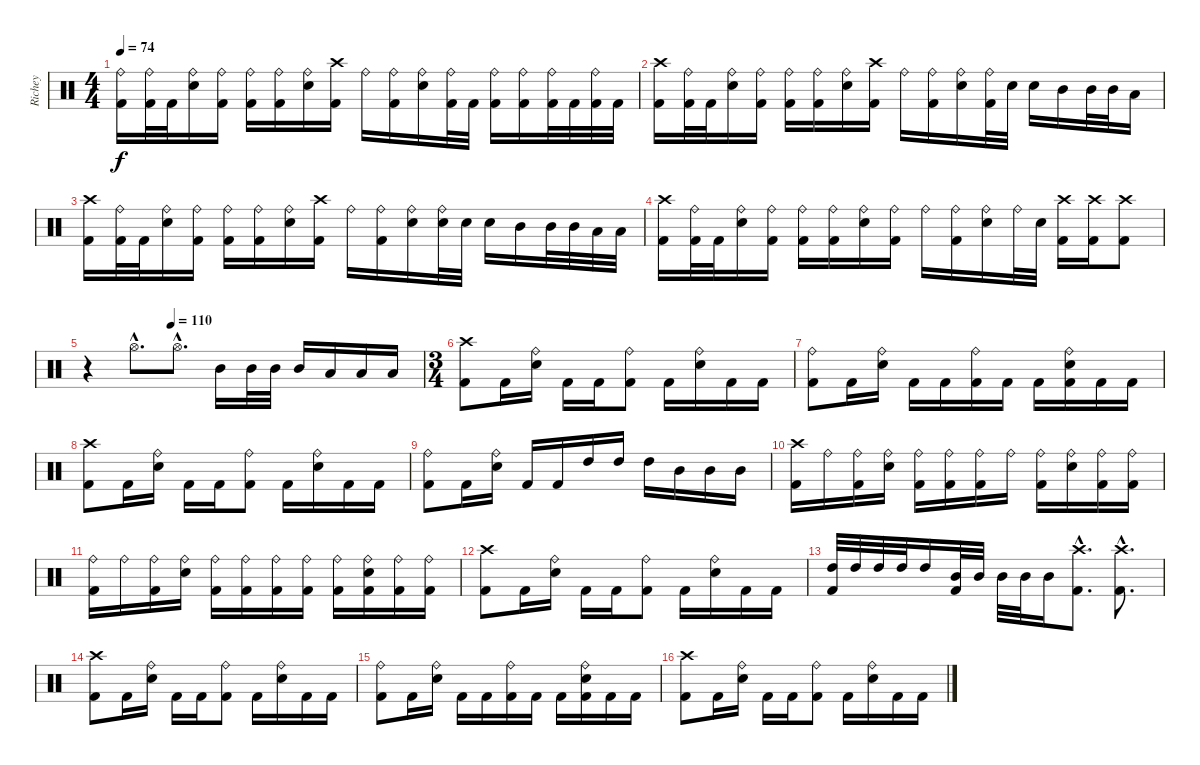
\track ("Richey" "Richey") {instrument percussion}
\staff {score}
\articulation defaults
\ts (4 4)
\tempo 74
\clef neutral
\ks c
("Ride (bell)" "Kick (hit) 2").16{dy f} ("Ride (bell)" "Kick (hit) 2").32 "Kick (hit) 2".32 ("Ride (bell)" "Snare (hit) 2").16 ("Ride (bell)" "Kick (hit) 2").16 ("Ride (bell)" "Kick (hit) 2").16 ("Ride (bell)" "Kick (hit) 2").16 ("Ride (bell)" "Snare (hit) 2").16 ("Crash high (hit)" "Kick (hit) 2").16 "Ride (bell)".16 ("Ride (bell)" "Kick (hit) 2").16 ("Ride (bell)" "Snare (hit) 2").16 ("Ride (bell)" "Kick (hit) 2").32 "Kick (hit) 2".32 ("Ride (bell)" "Kick (hit) 2").16 ("Ride (bell)" "Kick (hit) 2").16 ("Ride (bell)" "Kick (hit) 2").32 "Kick (hit) 2".32 ("Ride (bell)" "Kick (hit) 2").32 "Kick (hit) 2".32 |
("Crash high (hit)" "Kick (hit) 2").16 ("Ride (bell)" "Kick (hit) 2").32 "Kick (hit) 2".32 ("Ride (bell)" "Snare (hit) 2").16 ("Ride (bell)" "Kick (hit) 2").16 ("Ride (bell)" "Kick (hit) 2").16 ("Ride (bell)" "Kick (hit) 2").16 ("Ride (bell)" "Snare (hit) 2").16 ("Crash high (hit)" "Kick (hit) 2").16 "Ride (bell)".16 ("Ride (bell)" "Kick (hit) 2").16 ("Ride (bell)" "Snare (hit) 2").16 ("Ride (bell)" "Kick (hit) 2").32 "Snare (hit) 2".32 "Snare (hit) 2".16 "Mid Tom (hit)".16 "Mid Tom (hit)".32 "Mid Tom (hit)".32 "Low Tom (hit)".16 |
("Crash high (hit)" "Kick (hit) 2").16 ("Ride (bell)" "Kick (hit) 2").32 "Kick (hit) 2".32 ("Ride (bell)" "Snare (hit) 2").16 ("Ride (bell)" "Kick (hit) 2").16 ("Ride (bell)" "Kick (hit) 2").16 ("Ride (bell)" "Kick (hit) 2").16 ("Ride (bell)" "Snare (hit) 2").16 ("Crash high (hit)" "Kick (hit) 2").16 "Ride (bell)".16 ("Ride (bell)" "Kick (hit) 2").16 ("Ride (bell)" "Snare (hit) 2").16 ("Ride (bell)" "Snare (hit) 2").32 "Snare (hit) 2".32 "Snare (hit) 2".16 "Mid Tom (hit)".16 "Mid Tom (hit)".32 "Mid Tom (hit)".32 "Low Tom (hit)".32 "Low Tom (hit)".32 |
("Crash high (hit)" "Kick (hit) 2").16 ("Ride (bell)" "Kick (hit) 2").32 "Kick (hit) 2".32 ("Ride (bell)" "Snare (hit) 2").16 ("Ride (bell)" "Kick (hit) 2").16 ("Ride (bell)" "Kick (hit) 2").16 ("Ride (bell)" "Kick (hit) 2").16 ("Ride (bell)" "Snare (hit) 2").16 ("Ride (bell)" "Kick (hit) 2").16 "Ride (bell)".16 ("Ride (bell)" "Kick (hit) 2").16 ("Ride (bell)" "Snare (hit) 2").16 "Ride (bell)".32 "Snare (hit) 2".32 ("Crash high (hit)" "Kick (hit) 2").16 ("Crash high (hit)" "Kick (hit) 2").16 ("Crash high (hit)" "Kick (hit) 2").8 |
\tempo (110 0.25)
r.4 "Hi-Hat (open)"{hac}.8{d} "Hi-Hat (open)"{hac}.8{d} "Mid Tom (hit)".16 "Mid Tom (hit)".32 "Mid Tom (hit)".32 "Mid Tom (hit)".16 "Low Tom (hit)".16 "Low Tom (hit)".16 "Low Tom (hit)".16 |
\ts (3 4)
("Crash high (hit)" "Kick (hit) 2").8 "Kick (hit) 2".16 ("Ride (bell)" "Snare (hit) 2").16 "Kick (hit) 2".16 "Kick (hit) 2".16 ("Ride (bell)" "Kick (hit) 2").8 "Kick (hit) 2".16 ("Ride (bell)" "Snare (hit) 2").16 "Kick (hit) 2".16 "Kick (hit) 2".16 |
("Ride (bell)" "Kick (hit) 2").8 "Kick (hit) 2".16 ("Ride (bell)" "Snare (hit) 2").16 "Kick (hit) 2".16 "Kick (hit) 2".16 ("Ride (bell)" "Kick (hit) 2").16 "Kick (hit) 2".16 "Kick (hit) 2".16 ("Ride (bell)" "Snare (hit) 2" "Kick (hit) 2").16 "Kick (hit) 2".16 "Kick (hit) 2".16 |
("Crash high (hit)" "Kick (hit) 2").8 "Kick (hit) 2".16 ("Ride (bell)" "Snare (hit) 2").16 "Kick (hit) 2".16 "Kick (hit) 2".16 ("Ride (bell)" "Kick (hit) 2").8 "Kick (hit) 2".16 ("Ride (bell)" "Snare (hit) 2").16 "Kick (hit) 2".16 "Kick (hit) 2".16 |
("Ride (bell)" "Kick (hit) 2").8 "Kick (hit) 2".16 ("Ride (bell)" "Snare (hit) 2").16 "Kick (hit) 2".16 "Kick (hit) 2".16 "High Tom (hit)".16 "High Tom (hit)".16 "High Tom (hit)".16 "Mid Tom (hit)".16 "Mid Tom (hit)".16 "Mid Tom (hit)".16 |
("Crash high (hit)" "Kick (hit) 2").16 "Ride (bell)".16 ("Ride (bell)" "Kick (hit) 2").16 ("Ride (bell)" "Snare (hit) 2").16 ("Ride (bell)" "Kick (hit) 2").16 ("Ride (bell)" "Kick (hit) 2").16 ("Ride (bell)" "Kick (hit) 2").16 "Ride (bell)".16 ("Ride (bell)" "Kick (hit) 2").16 ("Ride (bell)" "Snare (hit) 2").16 ("Ride (bell)" "Kick (hit) 2").16 ("Ride (bell)" "Kick (hit) 2").16 |
("Ride (bell)" "Kick (hit) 2").16 "Ride (bell)".16 ("Ride (bell)" "Kick (hit) 2").16 ("Ride (bell)" "Snare (hit) 2").16 ("Ride (bell)" "Kick (hit) 2").16 ("Ride (bell)" "Kick (hit) 2").16 ("Ride (bell)" "Kick (hit) 2").16 ("Ride (bell)" "Kick (hit) 2").16 ("Ride (bell)" "Kick (hit) 2").16 ("Ride (bell)" "Snare (hit) 2" "Kick (hit) 2").16 ("Ride (bell)" "Kick (hit) 2").16 ("Ride (bell)" "Kick (hit) 2").16 |
("Crash high (hit)" "Kick (hit) 2").8 "Kick (hit) 2".16 ("Ride (bell)" "Snare (hit) 2").16 "Kick (hit) 2".16 "Kick (hit) 2".16 ("Ride (bell)" "Kick (hit) 2").8 "Kick (hit) 2".16 ("Ride (bell)" "Snare (hit) 2").16 "Kick (hit) 2".16 "Kick (hit) 2".16 |
("High Tom (hit)" "Kick (hit) 2").32 "High Tom (hit)".32 "High Tom (hit)".32 "High Tom (hit)".32 "High Tom (hit)".16 ("Mid Tom (hit)" "Kick (hit) 2").32 "Mid Tom (hit)".32 "Mid Tom (hit)".32 "Mid Tom (hit)".32 "Mid Tom (hit)".16 ("Crash high (hit)"{hac} "Kick (hit) 2"{hac}).8{d} ("Crash high (hit)"{hac} "Kick (hit) 2"{hac}).8{d} |
("Crash high (hit)" "Kick (hit) 2").8 "Kick (hit) 2".16 ("Ride (bell)" "Snare (hit) 2").16 "Kick (hit) 2".16 "Kick (hit) 2".16 ("Ride (bell)" "Kick (hit) 2").8 "Kick (hit) 2".16 ("Ride (bell)" "Snare (hit) 2").16 "Kick (hit) 2".16 "Kick (hit) 2".16 |
("Ride (bell)" "Kick (hit) 2").8 "Kick (hit) 2".16 ("Ride (bell)" "Snare (hit) 2").16 "Kick (hit) 2".16 "Kick (hit) 2".16 ("Ride (bell)" "Kick (hit) 2").16 "Kick (hit) 2".16 "Kick (hit) 2".16 ("Ride (bell)" "Snare (hit) 2" "Kick (hit) 2").16 "Kick (hit) 2".16 "Kick (hit) 2".16 |
("Crash high (hit)" "Kick (hit) 2").8 "Kick (hit) 2".16 ("Ride (bell)" "Snare (hit) 2").16 "Kick (hit) 2".16 "Kick (hit) 2".16 ("Ride (bell)" "Kick (hit) 2").8 "Kick (hit) 2".16 ("Ride (bell)" "Snare (hit) 2").16 "Kick (hit) 2".16 "Kick (hit) 2".16
